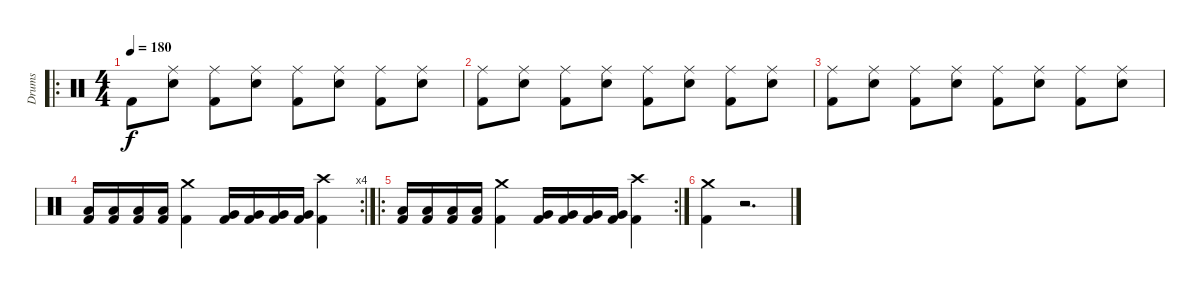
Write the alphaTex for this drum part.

\track ("Drums" "Drums") {instrument percussion}
\staff {score}
\articulation defaults
\ro
\ts (4 4)
\tempo 180
\clef neutral
\ks c "Kick (hit) 2".8{dy f}
("Ride (middle)" "Snare (hit) 2").8 ("Ride (middle)" "Kick (hit) 2").8 ("Ride (middle)" "Snare (hit) 2").8 ("Ride (middle)" "Kick (hit) 2").8 ("Ride (middle)" "Snare (hit) 2").8 ("Ride (middle)" "Kick (hit) 2").8 ("Ride (middle)" "Snare (hit) 2").8 |
("Ride (middle)" "Kick (hit) 2").8 ("Ride (middle)" "Snare (hit) 2").8 ("Ride (middle)" "Kick (hit) 2").8 ("Ride (middle)" "Snare (hit) 2").8 ("Ride (middle)" "Kick (hit) 2").8 ("Ride (middle)" "Snare (hit) 2").8 ("Ride (middle)" "Kick (hit) 2").8 ("Ride (middle)" "Snare (hit) 2").8 |
("Ride (middle)" "Kick (hit) 2").8 ("Ride (middle)" "Snare (hit) 2").8 ("Ride (middle)" "Kick (hit) 2").8 ("Ride (middle)" "Snare (hit) 2").8 ("Ride (middle)" "Kick (hit) 2").8 ("Ride (middle)" "Snare (hit) 2").8 ("Ride (middle)" "Kick (hit) 2").8 ("Ride (middle)" "Snare (hit) 2").8 |
\rc 4
("Low Tom (hit)" "Kick (hit) 2").16 ("Low Tom (hit)" "Kick (hit) 2").16 ("Low Tom (hit)" "Kick (hit) 2").16 ("Low Tom (hit)" "Kick (hit) 2").16 ("Crash medium (hit)" "Kick (hit) 2").4 ("Very Low Tom (hit)" "Kick (hit) 2").16 ("Very Low Tom (hit)" "Kick (hit) 2").16 ("Very Low Tom (hit)" "Kick (hit) 2").16 ("Very Low Tom (hit)" "Kick (hit) 2").16 ("Crash high (hit)" "Kick (hit) 2").4 |
\ro
\rc 2
("Low Tom (hit)" "Kick (hit) 2").16 ("Low Tom (hit)" "Kick (hit) 2").16 ("Low Tom (hit)" "Kick (hit) 2").16 ("Low Tom (hit)" "Kick (hit) 2").16 ("Crash medium (hit)" "Kick (hit) 2").4 ("Very Low Tom (hit)" "Kick (hit) 2").16 ("Very Low Tom (hit)" "Kick (hit) 2").16 ("Very Low Tom (hit)" "Kick (hit) 2").16 ("Very Low Tom (hit)" "Kick (hit) 2").16 ("Crash high (hit)" "Kick (hit) 2").4 |
("Crash medium (hit)" "Kick (hit) 2").4 r.2{d}
